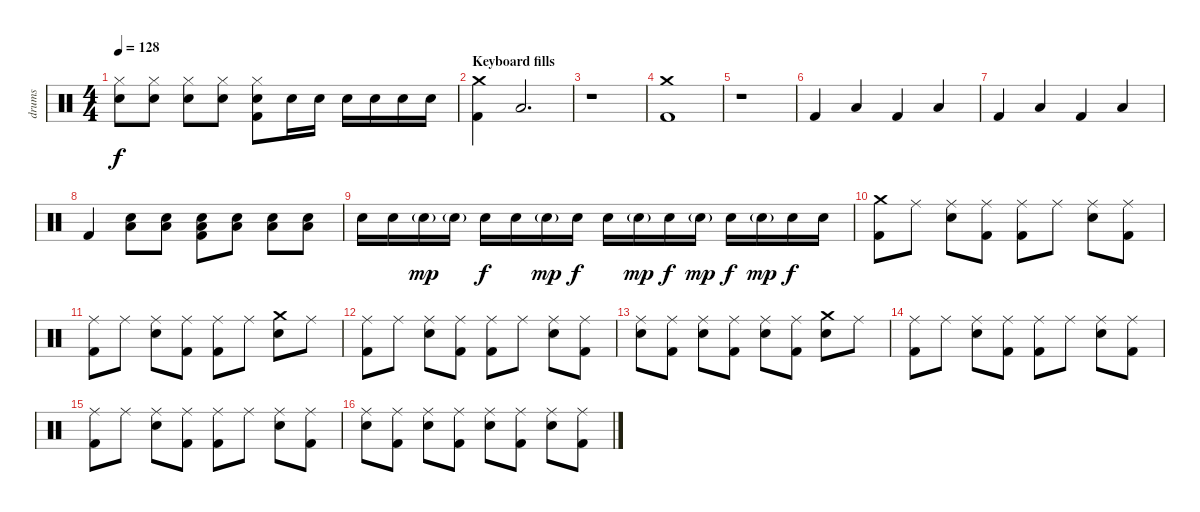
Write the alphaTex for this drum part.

\track ("drums" "drums") {instrument percussion}
\staff {score}
\articulation defaults
\ts (4 4)
\tempo 128
\clef neutral
\ks c
("Hi-Hat (closed)" "Snare (hit) 2").8{dy f} ("Hi-Hat (closed)" "Snare (hit) 2").8 ("Hi-Hat (closed)" "Snare (hit) 2").8 ("Hi-Hat (closed)" "Snare (hit) 2").8 ("Hi-Hat (closed)" "Snare (hit) 2" "Kick (hit) 2").8 "Snare (hit) 2".16 "Snare (hit) 2".16 "Snare (hit) 2".16 "Snare (hit) 2".16 "Snare (hit) 2".16 "Snare (hit) 2".16 |
\section ("" "Keyboard fills")
("Crash medium (hit)" "Kick (hit) 2").4 "Low Floor Tom (hit)".2{d} |
r.1 |
("Crash medium (hit)" "Kick (hit) 2").1 |
r.1 |
"Kick (hit) 2".4 "Low Floor Tom (hit)".4 "Kick (hit) 2".4 "Low Floor Tom (hit)".4 |
"Kick (hit) 2".4 "Low Floor Tom (hit)".4 "Kick (hit) 2".4 "Low Floor Tom (hit)".4 |
"Kick (hit) 2".4 ("Snare (hit) 2" "Low Floor Tom (hit)").8 ("Snare (hit) 2" "Low Floor Tom (hit)").8 ("Snare (hit) 2" "Low Floor Tom (hit)" "Kick (hit) 2").8 ("Snare (hit) 2" "Low Floor Tom (hit)").8 ("Snare (hit) 2" "Low Floor Tom (hit)").8 ("Snare (hit) 2" "Low Floor Tom (hit)").8 |
"Snare (hit) 2".16 "Snare (hit) 2".16 "Snare (hit) 2"{g}.16{dy mp} "Snare (hit) 2"{g}.16 "Snare (hit) 2".16{dy f} "Snare (hit) 2".16 "Snare (hit) 2"{g}.16{dy mp} "Snare (hit) 2".16{dy f} "Snare (hit) 2".16 "Snare (hit) 2"{g}.16{dy mp} "Snare (hit) 2".16{dy f} "Snare (hit) 2"{g}.16{dy mp} "Snare (hit) 2".16{dy f} "Snare (hit) 2"{g}.16{dy mp} "Snare (hit) 2".16{dy f} "Snare (hit) 2".16 |
("Crash medium (hit)" "Kick (hit) 2").8 "Ride (middle)".8 ("Ride (middle)" "Snare (hit) 2").8 ("Ride (middle)" "Kick (hit) 2").8 ("Ride (middle)" "Kick (hit) 2").8 "Ride (middle)".8 ("Ride (middle)" "Snare (hit) 2").8 ("Ride (middle)" "Kick (hit) 2").8 |
("Ride (middle)" "Kick (hit) 2").8 "Ride (middle)".8 ("Ride (middle)" "Snare (hit) 2").8 ("Ride (middle)" "Kick (hit) 2").8 ("Ride (middle)" "Kick (hit) 2").8 "Ride (middle)".8 ("Crash medium (hit)" "Snare (hit) 2").8 "Ride (middle)".8 |
("Ride (middle)" "Kick (hit) 2").8 "Ride (middle)".8 ("Ride (middle)" "Snare (hit) 2").8 ("Ride (middle)" "Kick (hit) 2").8 ("Ride (middle)" "Kick (hit) 2").8 "Ride (middle)".8 ("Ride (middle)" "Snare (hit) 2").8 ("Ride (middle)" "Kick (hit) 2").8 |
("Ride (middle)" "Snare (hit) 2").8 ("Ride (middle)" "Kick (hit) 2").8 ("Ride (middle)" "Snare (hit) 2").8 ("Ride (middle)" "Kick (hit) 2").8 ("Ride (middle)" "Snare (hit) 2").8 ("Ride (middle)" "Kick (hit) 2").8 ("Crash medium (hit)" "Snare (hit) 2").8 "Ride (middle)".8 |
("Ride (middle)" "Kick (hit) 2").8 "Ride (middle)".8 ("Ride (middle)" "Snare (hit) 2").8 ("Ride (middle)" "Kick (hit) 2").8 ("Ride (middle)" "Kick (hit) 2").8 "Ride (middle)".8 ("Ride (middle)" "Snare (hit) 2").8 ("Ride (middle)" "Kick (hit) 2").8 |
("Ride (middle)" "Kick (hit) 2").8 "Ride (middle)".8 ("Ride (middle)" "Snare (hit) 2").8 ("Ride (middle)" "Kick (hit) 2").8 ("Ride (middle)" "Kick (hit) 2").8 "Ride (middle)".8 ("Ride (middle)" "Snare (hit) 2").8 ("Ride (middle)" "Kick (hit) 2").8 |
("Ride (middle)" "Snare (hit) 2").8 ("Ride (middle)" "Kick (hit) 2").8 ("Ride (middle)" "Snare (hit) 2").8 ("Ride (middle)" "Kick (hit) 2").8 ("Ride (middle)" "Snare (hit) 2").8 ("Ride (middle)" "Kick (hit) 2").8 ("Ride (middle)" "Snare (hit) 2").8 ("Ride (middle)" "Kick (hit) 2").8
